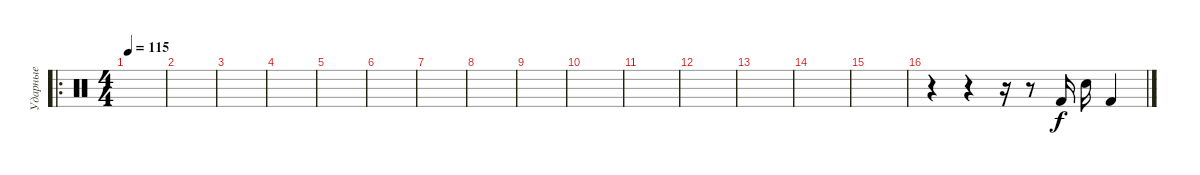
\track ("Ударные" "Ударные") {instrument percussion}
\staff {score}
\articulation defaults
\ro
\ts (4 4)
\tempo 115
\tempo 130
\tempo 115
\clef neutral
\ks c
|
|
|
|
|
|
|
|
|
|
|
|
|
|
|
r.4 r.4 r.16 r.8 "Kick (hit) 2".16 "Electric Snare (hit)".16 "Kick (hit) 2".4
